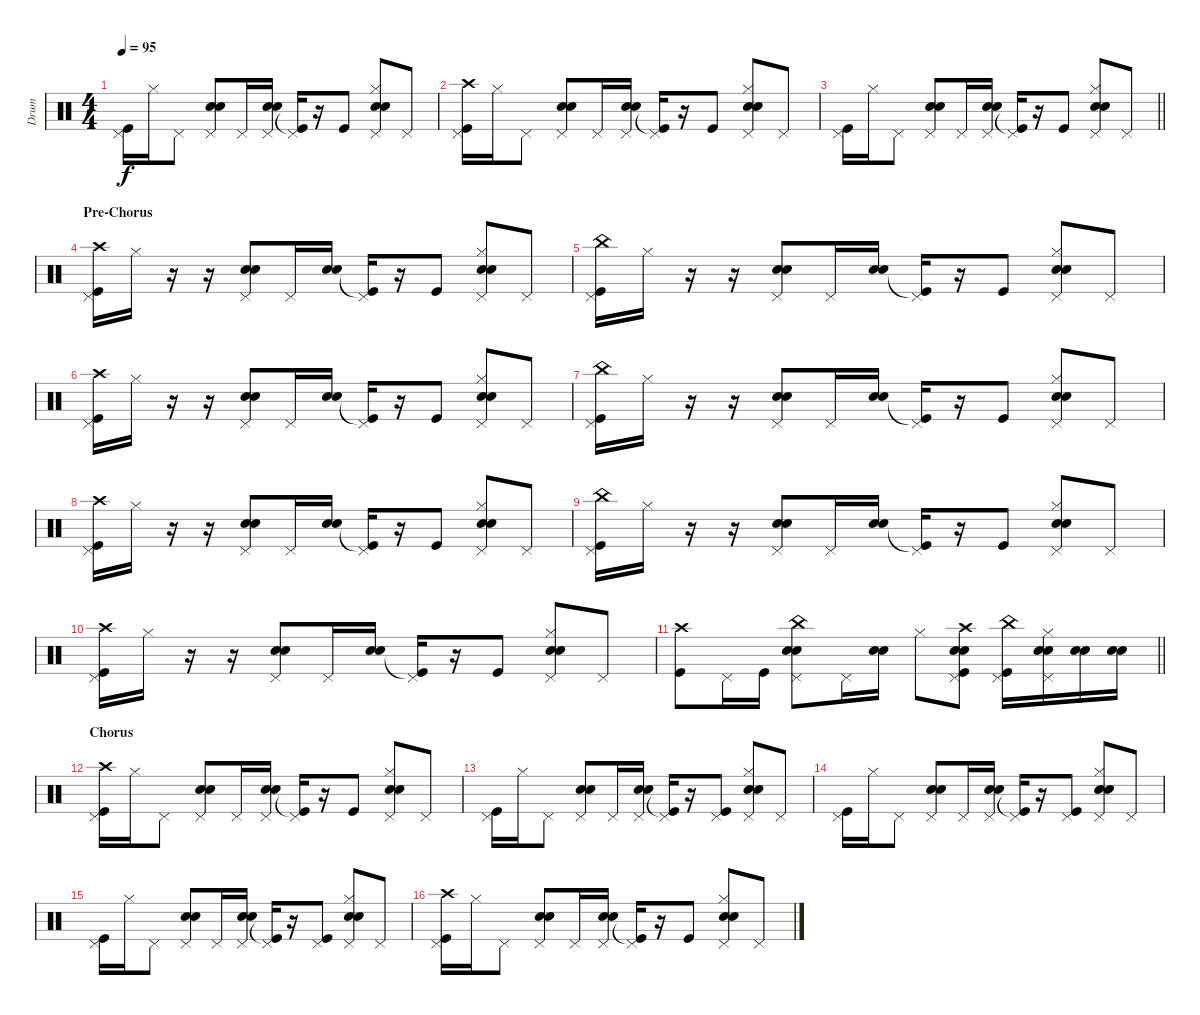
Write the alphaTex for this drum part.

\track ("Drum" "Drum") {instrument percussion}
\staff {score}
\articulation defaults
\ts (4 4)
\tempo 95
\clef neutral
\ks c
("Pedal Hi-Hat (hit)" "Kick (hit)").16{dy f} "Hi-Hat (closed)".16 "Pedal Hi-Hat (hit)".8 ("Pedal Hi-Hat (hit)" "Snare (hit) 2" "Snare (hit) 2").8 "Pedal Hi-Hat (hit)".16 ("Pedal Hi-Hat (hit)" "Snare (hit) 2" "Snare (hit) 2").16 ("Pedal Hi-Hat (hit)" "Kick (hit)"{t}).16 r.16 "Kick (hit)".8 ("Pedal Hi-Hat (hit)" "Hi-Hat (closed)" "Snare (hit) 2" "Snare (hit) 2").8 "Pedal Hi-Hat (hit)".8 |
("Pedal Hi-Hat (hit)" "Crash high (hit)" "Kick (hit)").16 "Hi-Hat (closed)".16 "Pedal Hi-Hat (hit)".8 ("Pedal Hi-Hat (hit)" "Snare (hit) 2" "Snare (hit) 2").8 "Pedal Hi-Hat (hit)".16 ("Pedal Hi-Hat (hit)" "Snare (hit) 2" "Snare (hit) 2").16 ("Pedal Hi-Hat (hit)" "Kick (hit)"{t}).16 r.16 "Kick (hit)".8 ("Pedal Hi-Hat (hit)" "Hi-Hat (closed)" "Snare (hit) 2" "Snare (hit) 2").8 "Pedal Hi-Hat (hit)".8 |
\barLineRight lightlight
("Pedal Hi-Hat (hit)" "Kick (hit)").16 "Hi-Hat (closed)".16 "Pedal Hi-Hat (hit)".8 ("Pedal Hi-Hat (hit)" "Snare (hit) 2" "Snare (hit) 2").8 "Pedal Hi-Hat (hit)".16 ("Pedal Hi-Hat (hit)" "Snare (hit) 2" "Snare (hit) 2").16 ("Pedal Hi-Hat (hit)" "Kick (hit)"{t}).16 r.16 "Kick (hit)".8 ("Pedal Hi-Hat (hit)" "Hi-Hat (closed)" "Snare (hit) 2" "Snare (hit) 2").8 "Pedal Hi-Hat (hit)".8 |
\section ("" "Pre-Chorus")
("Pedal Hi-Hat (hit)" "Crash high (hit)" "Kick (hit)").16 "Hi-Hat (closed)".16 r.16 r.16 ("Pedal Hi-Hat (hit)" "Snare (hit) 2" "Snare (hit) 2").8 "Pedal Hi-Hat (hit)".16 ("Snare (hit) 2" "Snare (hit) 2").16 ("Pedal Hi-Hat (hit)" "Kick (hit)"{t}).16 r.16 "Kick (hit)".8 ("Pedal Hi-Hat (hit)" "Hi-Hat (closed)" "Snare (hit) 2" "Snare (hit) 2").8 "Pedal Hi-Hat (hit)".8 |
("Pedal Hi-Hat (hit)" "China (hit)" "Kick (hit)").16 "Hi-Hat (closed)".16 r.16 r.16 ("Pedal Hi-Hat (hit)" "Snare (hit) 2" "Snare (hit) 2").8 "Pedal Hi-Hat (hit)".16 ("Snare (hit) 2" "Snare (hit) 2").16 ("Pedal Hi-Hat (hit)" "Kick (hit)"{t}).16 r.16 "Kick (hit)".8 ("Pedal Hi-Hat (hit)" "Hi-Hat (closed)" "Snare (hit) 2" "Snare (hit) 2").8 "Pedal Hi-Hat (hit)".8 |
("Pedal Hi-Hat (hit)" "Crash high (hit)" "Kick (hit)").16 "Hi-Hat (closed)".16 r.16 r.16 ("Pedal Hi-Hat (hit)" "Snare (hit) 2" "Snare (hit) 2").8 "Pedal Hi-Hat (hit)".16 ("Snare (hit) 2" "Snare (hit) 2").16 ("Pedal Hi-Hat (hit)" "Kick (hit)"{t}).16 r.16 "Kick (hit)".8 ("Pedal Hi-Hat (hit)" "Hi-Hat (closed)" "Snare (hit) 2" "Snare (hit) 2").8 "Pedal Hi-Hat (hit)".8 |
("Pedal Hi-Hat (hit)" "China (hit)" "Kick (hit)").16 "Hi-Hat (closed)".16 r.16 r.16 ("Pedal Hi-Hat (hit)" "Snare (hit) 2" "Snare (hit) 2").8 "Pedal Hi-Hat (hit)".16 ("Snare (hit) 2" "Snare (hit) 2").16 ("Pedal Hi-Hat (hit)" "Kick (hit)"{t}).16 r.16 "Kick (hit)".8 ("Pedal Hi-Hat (hit)" "Hi-Hat (closed)" "Snare (hit) 2" "Snare (hit) 2").8 "Pedal Hi-Hat (hit)".8 |
("Pedal Hi-Hat (hit)" "Crash high (hit)" "Kick (hit)").16 "Hi-Hat (closed)".16 r.16 r.16 ("Pedal Hi-Hat (hit)" "Snare (hit) 2" "Snare (hit) 2").8 "Pedal Hi-Hat (hit)".16 ("Snare (hit) 2" "Snare (hit) 2").16 ("Pedal Hi-Hat (hit)" "Kick (hit)"{t}).16 r.16 "Kick (hit)".8 ("Pedal Hi-Hat (hit)" "Hi-Hat (closed)" "Snare (hit) 2" "Snare (hit) 2").8 "Pedal Hi-Hat (hit)".8 |
("Pedal Hi-Hat (hit)" "China (hit)" "Kick (hit)").16 "Hi-Hat (closed)".16 r.16 r.16 ("Pedal Hi-Hat (hit)" "Snare (hit) 2" "Snare (hit) 2").8 "Pedal Hi-Hat (hit)".16 ("Snare (hit) 2" "Snare (hit) 2").16 ("Pedal Hi-Hat (hit)" "Kick (hit)"{t}).16 r.16 "Kick (hit)".8 ("Pedal Hi-Hat (hit)" "Hi-Hat (closed)" "Snare (hit) 2" "Snare (hit) 2").8 "Pedal Hi-Hat (hit)".8 |
("Pedal Hi-Hat (hit)" "Crash high (hit)" "Kick (hit)").16 "Hi-Hat (closed)".16 r.16 r.16 ("Pedal Hi-Hat (hit)" "Snare (hit) 2" "Snare (hit) 2").8 "Pedal Hi-Hat (hit)".16 ("Snare (hit) 2" "Snare (hit) 2").16 ("Pedal Hi-Hat (hit)" "Kick (hit)"{t}).16 r.16 "Kick (hit)".8 ("Pedal Hi-Hat (hit)" "Hi-Hat (closed)" "Snare (hit) 2" "Snare (hit) 2").8 "Pedal Hi-Hat (hit)".8 |
\barLineRight lightlight
("Crash high (hit)" "Kick (hit)").8 "Pedal Hi-Hat (hit)".16 "Kick (hit)".16 ("Pedal Hi-Hat (hit)" "China (hit)" "Snare (hit) 2" "Snare (hit) 2").8 "Pedal Hi-Hat (hit)".16 ("Snare (hit) 2" "Snare (hit) 2").16 "Hi-Hat (closed)".8 ("Pedal Hi-Hat (hit)" "Crash high (hit)" "Snare (hit) 2" "Snare (hit) 2" "Kick (hit)").8 ("Pedal Hi-Hat (hit)" "China (hit)" "Kick (hit)").16 ("Pedal Hi-Hat (hit)" "Hi-Hat (closed)" "Snare (hit) 2" "Snare (hit) 2").16 ("Electric Snare (hit)" "Electric Snare (hit)").16 ("Electric Snare (hit)" "Electric Snare (hit)").16 |
\section ("" "Chorus")
("Pedal Hi-Hat (hit)" "Crash high (hit)" "Kick (hit)").16 "Hi-Hat (closed)".16 "Pedal Hi-Hat (hit)".8 ("Pedal Hi-Hat (hit)" "Snare (hit) 2" "Snare (hit) 2").8 "Pedal Hi-Hat (hit)".16 ("Pedal Hi-Hat (hit)" "Snare (hit) 2" "Snare (hit) 2").16 ("Pedal Hi-Hat (hit)" "Kick (hit)"{t}).16 r.16 "Kick (hit)".8 ("Pedal Hi-Hat (hit)" "Hi-Hat (closed)" "Snare (hit) 2" "Snare (hit) 2").8 "Pedal Hi-Hat (hit)".8 |
("Pedal Hi-Hat (hit)" "Kick (hit)").16 "Hi-Hat (closed)".16 "Pedal Hi-Hat (hit)".8 ("Pedal Hi-Hat (hit)" "Snare (hit) 2" "Snare (hit) 2").8 "Pedal Hi-Hat (hit)".16 ("Pedal Hi-Hat (hit)" "Snare (hit) 2" "Snare (hit) 2").16 ("Pedal Hi-Hat (hit)" "Kick (hit)"{t}).16 r.16 ("Pedal Hi-Hat (hit)" "Kick (hit)").8 ("Pedal Hi-Hat (hit)" "Hi-Hat (closed)" "Snare (hit) 2" "Snare (hit) 2").8 "Pedal Hi-Hat (hit)".8 |
("Pedal Hi-Hat (hit)" "Kick (hit)").16 "Hi-Hat (closed)".16 "Pedal Hi-Hat (hit)".8 ("Pedal Hi-Hat (hit)" "Snare (hit) 2" "Snare (hit) 2").8 "Pedal Hi-Hat (hit)".16 ("Pedal Hi-Hat (hit)" "Snare (hit) 2" "Snare (hit) 2").16 ("Pedal Hi-Hat (hit)" "Kick (hit)"{t}).16 r.16 ("Pedal Hi-Hat (hit)" "Kick (hit)").8 ("Pedal Hi-Hat (hit)" "Hi-Hat (closed)" "Snare (hit) 2" "Snare (hit) 2").8 "Pedal Hi-Hat (hit)".8 |
("Pedal Hi-Hat (hit)" "Kick (hit)").16 "Hi-Hat (closed)".16 "Pedal Hi-Hat (hit)".8 ("Pedal Hi-Hat (hit)" "Snare (hit) 2" "Snare (hit) 2").8 "Pedal Hi-Hat (hit)".16 ("Pedal Hi-Hat (hit)" "Snare (hit) 2" "Snare (hit) 2").16 ("Pedal Hi-Hat (hit)" "Kick (hit)"{t}).16 r.16 ("Pedal Hi-Hat (hit)" "Kick (hit)").8 ("Pedal Hi-Hat (hit)" "Hi-Hat (closed)" "Snare (hit) 2" "Snare (hit) 2").8 "Pedal Hi-Hat (hit)".8 |
("Pedal Hi-Hat (hit)" "Crash high (hit)" "Kick (hit)").16 "Hi-Hat (closed)".16 "Pedal Hi-Hat (hit)".8 ("Pedal Hi-Hat (hit)" "Snare (hit) 2" "Snare (hit) 2").8 "Pedal Hi-Hat (hit)".16 ("Pedal Hi-Hat (hit)" "Snare (hit) 2" "Snare (hit) 2").16 ("Pedal Hi-Hat (hit)" "Kick (hit)"{t}).16 r.16 "Kick (hit)".8 ("Pedal Hi-Hat (hit)" "Hi-Hat (closed)" "Snare (hit) 2" "Snare (hit) 2").8 "Pedal Hi-Hat (hit)".8
